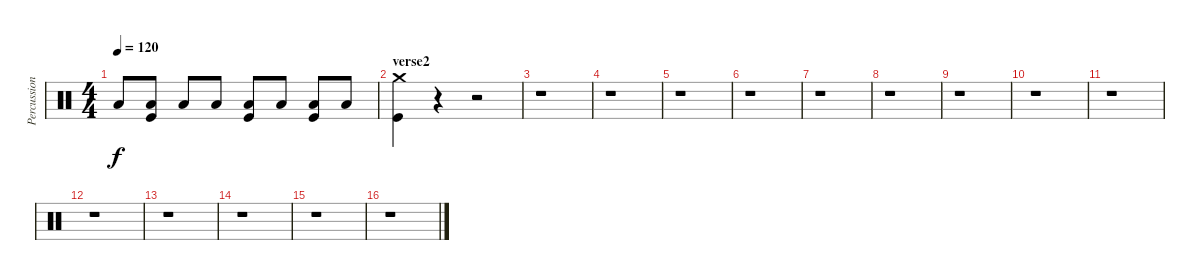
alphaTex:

\track ("Percussion" "Percussion") {instrument percussion}
\staff {score}
\articulation defaults
\ts (4 4)
\tempo 120
\clef neutral
\ks c "Low Floor Tom (hit)".8{dy f}
("Low Floor Tom (hit)" "Kick (hit)").8 "Low Floor Tom (hit)".8 "Low Floor Tom (hit)".8 ("Low Floor Tom (hit)" "Kick (hit)").8 "Low Floor Tom (hit)".8 ("Low Floor Tom (hit)" "Kick (hit)").8 "Low Floor Tom (hit)".8 |
\section ("" "verse2")
("Crash medium (hit)" "Kick (hit)").4 r.4 r.2 |
r.1 |
r.1 |
r.1 |
r.1 |
r.1 |
r.1 |
r.1 |
r.1 |
r.1 |
r.1 |
r.1 |
r.1 |
r.1 |
r.1
